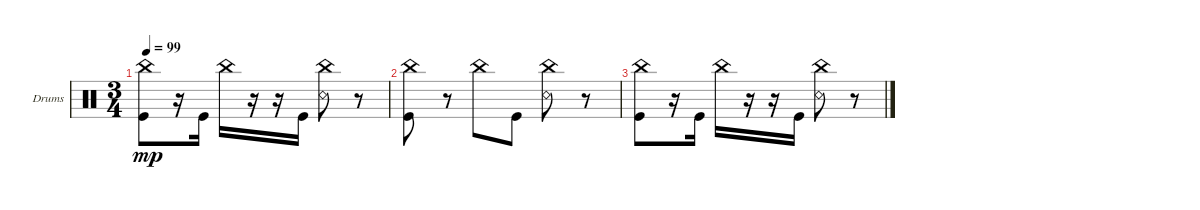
\defaultSystemsLayout 4
\bracketExtendMode groupsimilarinstruments
\firstSystemTrackNameOrientation horizontal
\otherSystemsTrackNameOrientation horizontal
\track ("Drumkit" "Drums") {instrument percussion}
\staff {score}
\articulation defaults
\ts (3 4)
\tempo 99
\clef neutral
\ks c
("Kick (hit)" "China (hit)").8{dy mp} r.16 "Kick (hit)".16 "China (hit)".16 r.16 r.16 "Kick (hit)".16 ("Snare (rim shot)" "China (hit)").8 r.8 |
("Kick (hit)" "China (hit)").8 r.8 "China (hit)".8 "Kick (hit)".8 ("Snare (rim shot)" "China (hit)").8 r.8 |
("Kick (hit)" "China (hit)").8 r.16 "Kick (hit)".16 "China (hit)".16 r.16 r.16 "Kick (hit)".16 ("Snare (rim shot)" "China (hit)").8 r.8
